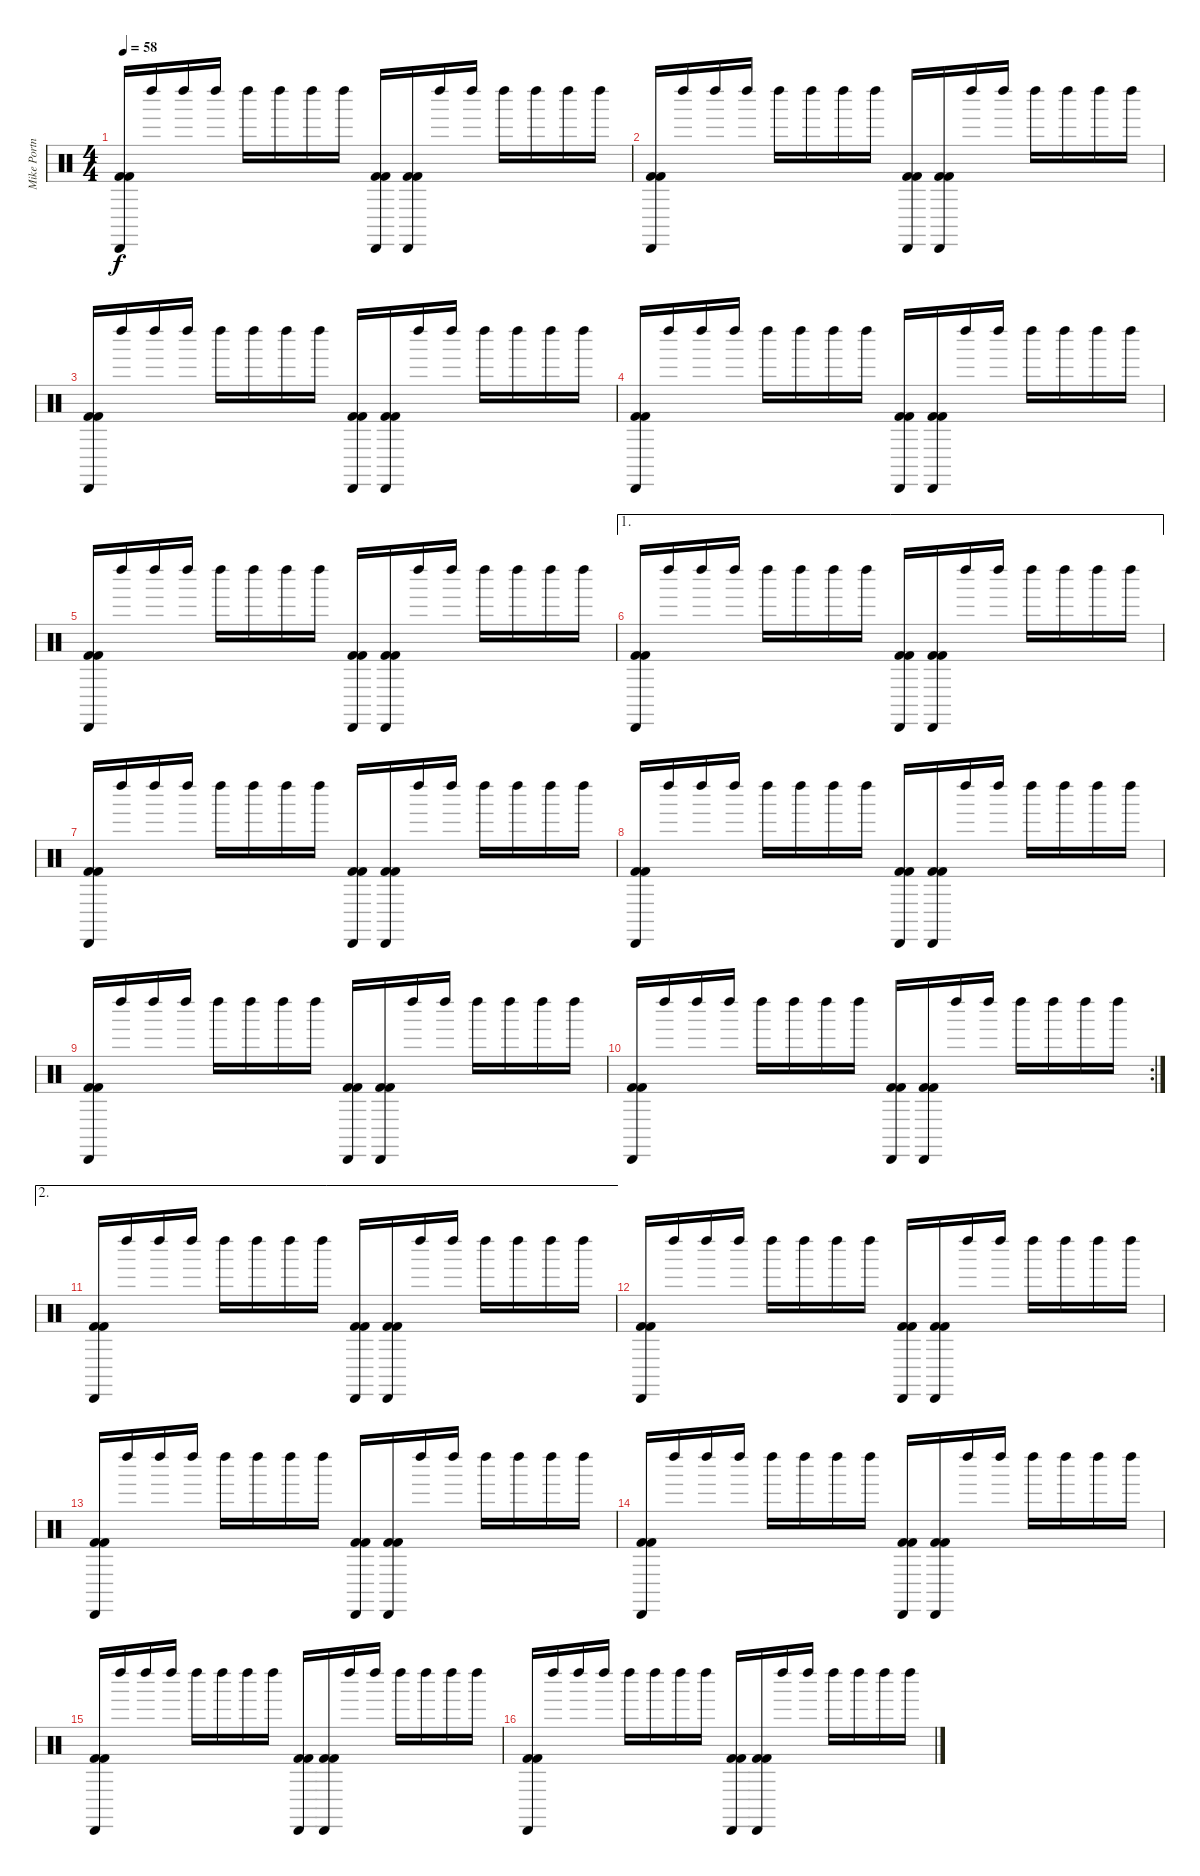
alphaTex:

\track ("Mike Portnoy - Drum" "Mike Portn") {instrument percussion}
\staff {score}
\articulation defaults
\ts (4 4)
\tempo 58
\clef neutral
\ks c
("Cabasa (hit)" "Kick (hit) 2" "Kick (hit) 2").16{dy f} "Left Maraca (hit)".16 "Left Maraca (hit)".16 "Left Maraca (hit)".16 "Left Maraca (hit)".16 "Left Maraca (hit)".16 "Left Maraca (hit)".16 "Left Maraca (hit)".16 ("Cabasa (hit)" "Kick (hit) 2" "Kick (hit) 2").16 ("Cabasa (hit)" "Kick (hit) 2" "Kick (hit) 2").16 "Left Maraca (hit)".16 "Left Maraca (hit)".16 "Left Maraca (hit)".16 "Left Maraca (hit)".16 "Left Maraca (hit)".16 "Left Maraca (hit)".16 |
("Cabasa (hit)" "Kick (hit) 2" "Kick (hit) 2").16 "Left Maraca (hit)".16 "Left Maraca (hit)".16 "Left Maraca (hit)".16 "Left Maraca (hit)".16 "Left Maraca (hit)".16 "Left Maraca (hit)".16 "Left Maraca (hit)".16 ("Cabasa (hit)" "Kick (hit) 2" "Kick (hit) 2").16 ("Cabasa (hit)" "Kick (hit) 2" "Kick (hit) 2").16 "Left Maraca (hit)".16 "Left Maraca (hit)".16 "Left Maraca (hit)".16 "Left Maraca (hit)".16 "Left Maraca (hit)".16 "Left Maraca (hit)".16 |
("Cabasa (hit)" "Kick (hit) 2" "Kick (hit) 2").16 "Left Maraca (hit)".16 "Left Maraca (hit)".16 "Left Maraca (hit)".16 "Left Maraca (hit)".16 "Left Maraca (hit)".16 "Left Maraca (hit)".16 "Left Maraca (hit)".16 ("Cabasa (hit)" "Kick (hit) 2" "Kick (hit) 2").16 ("Cabasa (hit)" "Kick (hit) 2" "Kick (hit) 2").16 "Left Maraca (hit)".16 "Left Maraca (hit)".16 "Left Maraca (hit)".16 "Left Maraca (hit)".16 "Left Maraca (hit)".16 "Left Maraca (hit)".16 |
("Cabasa (hit)" "Kick (hit) 2" "Kick (hit) 2").16 "Left Maraca (hit)".16 "Left Maraca (hit)".16 "Left Maraca (hit)".16 "Left Maraca (hit)".16 "Left Maraca (hit)".16 "Left Maraca (hit)".16 "Left Maraca (hit)".16 ("Cabasa (hit)" "Kick (hit) 2" "Kick (hit) 2").16 ("Cabasa (hit)" "Kick (hit) 2" "Kick (hit) 2").16 "Left Maraca (hit)".16 "Left Maraca (hit)".16 "Left Maraca (hit)".16 "Left Maraca (hit)".16 "Left Maraca (hit)".16 "Left Maraca (hit)".16 |
("Cabasa (hit)" "Kick (hit) 2" "Kick (hit) 2").16 "Left Maraca (hit)".16 "Left Maraca (hit)".16 "Left Maraca (hit)".16 "Left Maraca (hit)".16 "Left Maraca (hit)".16 "Left Maraca (hit)".16 "Left Maraca (hit)".16 ("Cabasa (hit)" "Kick (hit) 2" "Kick (hit) 2").16 ("Cabasa (hit)" "Kick (hit) 2" "Kick (hit) 2").16 "Left Maraca (hit)".16 "Left Maraca (hit)".16 "Left Maraca (hit)".16 "Left Maraca (hit)".16 "Left Maraca (hit)".16 "Left Maraca (hit)".16 |
\ae 1
("Cabasa (hit)" "Kick (hit) 2" "Kick (hit) 2").16 "Left Maraca (hit)".16 "Left Maraca (hit)".16 "Left Maraca (hit)".16 "Left Maraca (hit)".16 "Left Maraca (hit)".16 "Left Maraca (hit)".16 "Left Maraca (hit)".16 ("Cabasa (hit)" "Kick (hit) 2" "Kick (hit) 2").16 ("Cabasa (hit)" "Kick (hit) 2" "Kick (hit) 2").16 "Left Maraca (hit)".16 "Left Maraca (hit)".16 "Left Maraca (hit)".16 "Left Maraca (hit)".16 "Left Maraca (hit)".16 "Left Maraca (hit)".16 |
("Cabasa (hit)" "Kick (hit) 2" "Kick (hit) 2").16 "Left Maraca (hit)".16 "Left Maraca (hit)".16 "Left Maraca (hit)".16 "Left Maraca (hit)".16 "Left Maraca (hit)".16 "Left Maraca (hit)".16 "Left Maraca (hit)".16 ("Cabasa (hit)" "Kick (hit) 2" "Kick (hit) 2").16 ("Cabasa (hit)" "Kick (hit) 2" "Kick (hit) 2").16 "Left Maraca (hit)".16 "Left Maraca (hit)".16 "Left Maraca (hit)".16 "Left Maraca (hit)".16 "Left Maraca (hit)".16 "Left Maraca (hit)".16 |
("Cabasa (hit)" "Kick (hit) 2" "Kick (hit) 2").16 "Left Maraca (hit)".16 "Left Maraca (hit)".16 "Left Maraca (hit)".16 "Left Maraca (hit)".16 "Left Maraca (hit)".16 "Left Maraca (hit)".16 "Left Maraca (hit)".16 ("Cabasa (hit)" "Kick (hit) 2" "Kick (hit) 2").16 ("Cabasa (hit)" "Kick (hit) 2" "Kick (hit) 2").16 "Left Maraca (hit)".16 "Left Maraca (hit)".16 "Left Maraca (hit)".16 "Left Maraca (hit)".16 "Left Maraca (hit)".16 "Left Maraca (hit)".16 |
("Cabasa (hit)" "Kick (hit) 2" "Kick (hit) 2").16 "Left Maraca (hit)".16 "Left Maraca (hit)".16 "Left Maraca (hit)".16 "Left Maraca (hit)".16 "Left Maraca (hit)".16 "Left Maraca (hit)".16 "Left Maraca (hit)".16 ("Cabasa (hit)" "Kick (hit) 2" "Kick (hit) 2").16 ("Cabasa (hit)" "Kick (hit) 2" "Kick (hit) 2").16 "Left Maraca (hit)".16 "Left Maraca (hit)".16 "Left Maraca (hit)".16 "Left Maraca (hit)".16 "Left Maraca (hit)".16 "Left Maraca (hit)".16 |
\rc 2
("Cabasa (hit)" "Kick (hit) 2" "Kick (hit) 2").16 "Left Maraca (hit)".16 "Left Maraca (hit)".16 "Left Maraca (hit)".16 "Left Maraca (hit)".16 "Left Maraca (hit)".16 "Left Maraca (hit)".16 "Left Maraca (hit)".16 ("Cabasa (hit)" "Kick (hit) 2" "Kick (hit) 2").16 ("Cabasa (hit)" "Kick (hit) 2" "Kick (hit) 2").16 "Left Maraca (hit)".16 "Left Maraca (hit)".16 "Left Maraca (hit)".16 "Left Maraca (hit)".16 "Left Maraca (hit)".16 "Left Maraca (hit)".16 |
\ae 2
("Cabasa (hit)" "Kick (hit) 2" "Kick (hit) 2").16 "Left Maraca (hit)".16 "Left Maraca (hit)".16 "Left Maraca (hit)".16 "Left Maraca (hit)".16 "Left Maraca (hit)".16 "Left Maraca (hit)".16 "Left Maraca (hit)".16 ("Cabasa (hit)" "Kick (hit) 2" "Kick (hit) 2").16 ("Cabasa (hit)" "Kick (hit) 2" "Kick (hit) 2").16 "Left Maraca (hit)".16 "Left Maraca (hit)".16 "Left Maraca (hit)".16 "Left Maraca (hit)".16 "Left Maraca (hit)".16 "Left Maraca (hit)".16 |
("Cabasa (hit)" "Kick (hit) 2" "Kick (hit) 2").16 "Left Maraca (hit)".16 "Left Maraca (hit)".16 "Left Maraca (hit)".16 "Left Maraca (hit)".16 "Left Maraca (hit)".16 "Left Maraca (hit)".16 "Left Maraca (hit)".16 ("Cabasa (hit)" "Kick (hit) 2" "Kick (hit) 2").16 ("Cabasa (hit)" "Kick (hit) 2" "Kick (hit) 2").16 "Left Maraca (hit)".16 "Left Maraca (hit)".16 "Left Maraca (hit)".16 "Left Maraca (hit)".16 "Left Maraca (hit)".16 "Left Maraca (hit)".16 |
("Cabasa (hit)" "Kick (hit) 2" "Kick (hit) 2").16 "Left Maraca (hit)".16 "Left Maraca (hit)".16 "Left Maraca (hit)".16 "Left Maraca (hit)".16 "Left Maraca (hit)".16 "Left Maraca (hit)".16 "Left Maraca (hit)".16 ("Cabasa (hit)" "Kick (hit) 2" "Kick (hit) 2").16 ("Cabasa (hit)" "Kick (hit) 2" "Kick (hit) 2").16 "Left Maraca (hit)".16 "Left Maraca (hit)".16 "Left Maraca (hit)".16 "Left Maraca (hit)".16 "Left Maraca (hit)".16 "Left Maraca (hit)".16 |
("Cabasa (hit)" "Kick (hit) 2" "Kick (hit) 2").16 "Left Maraca (hit)".16 "Left Maraca (hit)".16 "Left Maraca (hit)".16 "Left Maraca (hit)".16 "Left Maraca (hit)".16 "Left Maraca (hit)".16 "Left Maraca (hit)".16 ("Cabasa (hit)" "Kick (hit) 2" "Kick (hit) 2").16 ("Cabasa (hit)" "Kick (hit) 2" "Kick (hit) 2").16 "Left Maraca (hit)".16 "Left Maraca (hit)".16 "Left Maraca (hit)".16 "Left Maraca (hit)".16 "Left Maraca (hit)".16 "Left Maraca (hit)".16 |
("Cabasa (hit)" "Kick (hit) 2" "Kick (hit) 2").16 "Left Maraca (hit)".16 "Left Maraca (hit)".16 "Left Maraca (hit)".16 "Left Maraca (hit)".16 "Left Maraca (hit)".16 "Left Maraca (hit)".16 "Left Maraca (hit)".16 ("Cabasa (hit)" "Kick (hit) 2" "Kick (hit) 2").16 ("Cabasa (hit)" "Kick (hit) 2" "Kick (hit) 2").16 "Left Maraca (hit)".16 "Left Maraca (hit)".16 "Left Maraca (hit)".16 "Left Maraca (hit)".16 "Left Maraca (hit)".16 "Left Maraca (hit)".16 |
("Cabasa (hit)" "Kick (hit) 2" "Kick (hit) 2").16 "Left Maraca (hit)".16 "Left Maraca (hit)".16 "Left Maraca (hit)".16 "Left Maraca (hit)".16 "Left Maraca (hit)".16 "Left Maraca (hit)".16 "Left Maraca (hit)".16 ("Cabasa (hit)" "Kick (hit) 2" "Kick (hit) 2").16 ("Cabasa (hit)" "Kick (hit) 2" "Kick (hit) 2").16 "Left Maraca (hit)".16 "Left Maraca (hit)".16 "Left Maraca (hit)".16 "Left Maraca (hit)".16 "Left Maraca (hit)".16 "Left Maraca (hit)".16
